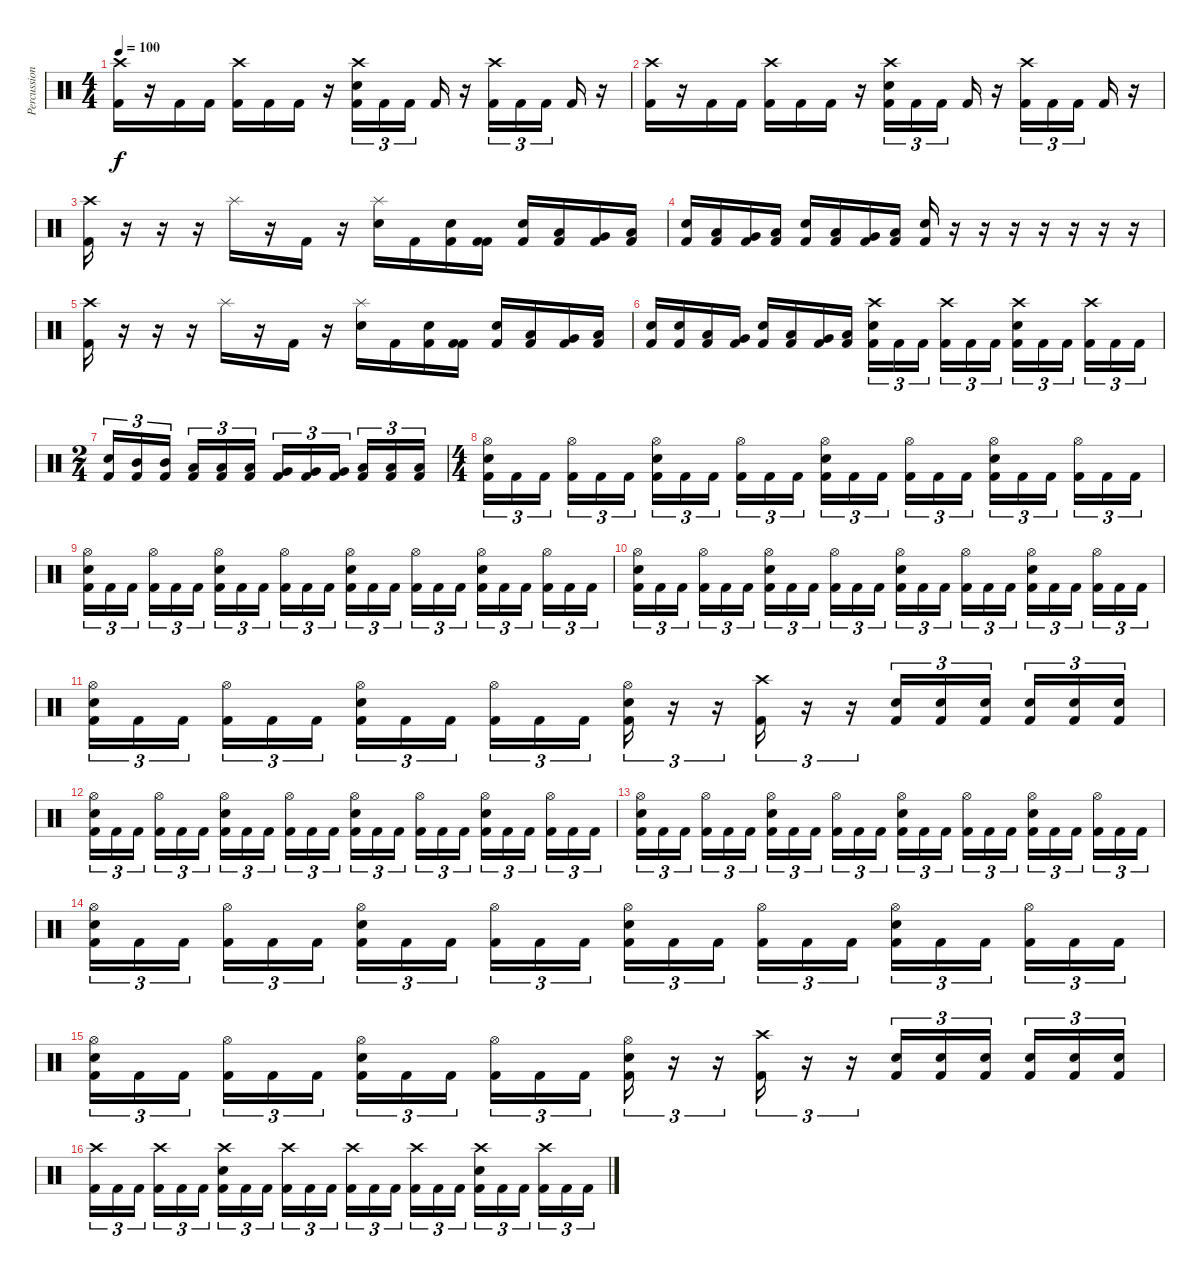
\track ("Percussion" "Percussion") {instrument percussion}
\staff {score}
\articulation defaults
\ts (4 4)
\tempo 100
\clef neutral
\ks c
("Crash high (hit)" "Kick (hit) 2").16{dy f} r.16 "Kick (hit) 2".16 "Kick (hit) 2".16 ("Crash high (hit)" "Kick (hit) 2").16 "Kick (hit) 2".16 "Kick (hit) 2".16 r.16 ("Crash high (hit)" "Electric Snare (hit)" "Kick (hit) 2").16{tu (3 2)} "Kick (hit) 2".16{tu (3 2)} "Kick (hit) 2".16{tu (3 2) beam splitsecondary} "Kick (hit) 2".16 r.16 ("Crash high (hit)" "Kick (hit) 2").16{tu (3 2)} "Kick (hit) 2".16{tu (3 2)} "Kick (hit) 2".16{tu (3 2) beam splitsecondary} "Kick (hit) 2".16 r.16 |
("Crash high (hit)" "Kick (hit) 2").16 r.16 "Kick (hit) 2".16 "Kick (hit) 2".16 ("Crash high (hit)" "Kick (hit) 2").16 "Kick (hit) 2".16 "Kick (hit) 2".16 r.16 ("Crash high (hit)" "Electric Snare (hit)" "Kick (hit) 2").16{tu (3 2)} "Kick (hit) 2".16{tu (3 2)} "Kick (hit) 2".16{tu (3 2) beam splitsecondary} "Kick (hit) 2".16 r.16 ("Crash high (hit)" "Kick (hit) 2").16{tu (3 2)} "Kick (hit) 2".16{tu (3 2)} "Kick (hit) 2".16{tu (3 2) beam splitsecondary} "Kick (hit) 2".16 r.16 |
("Crash high (hit)" "Kick (hit) 2").16 r.16 r.16 r.16 "Splash (hit)".16 r.16 "Kick (hit) 2".16 r.16 ("Splash (hit)" "Electric Snare (hit)").16 "Kick (hit) 2".16 ("Electric Snare (hit)" "Kick (hit) 2").16 ("Kick (hit) 2" "Kick (hit) 2").16 ("Electric Snare (hit)" "Kick (hit) 2").16 ("Low Tom (hit)" "Kick (hit) 2").16 ("Very Low Tom (hit)" "Kick (hit) 2").16 ("Low Floor Tom (hit)" "Kick (hit) 2").16 |
("Electric Snare (hit)" "Kick (hit) 2").16 ("Low Tom (hit)" "Kick (hit) 2").16 ("Very Low Tom (hit)" "Kick (hit) 2").16 ("Low Floor Tom (hit)" "Kick (hit) 2").16 ("Electric Snare (hit)" "Kick (hit) 2").16 ("Low Tom (hit)" "Kick (hit) 2").16 ("Very Low Tom (hit)" "Kick (hit) 2").16 ("Low Floor Tom (hit)" "Kick (hit) 2").16 ("Electric Snare (hit)" "Kick (hit) 2").16 r.16 r.16 r.16 r.16 r.16 r.16 r.16 |
("Crash high (hit)" "Kick (hit) 2").16 r.16 r.16 r.16 "Splash (hit)".16 r.16 "Kick (hit) 2".16 r.16 ("Splash (hit)" "Electric Snare (hit)").16 "Kick (hit) 2".16 ("Electric Snare (hit)" "Kick (hit) 2").16 ("Kick (hit) 2" "Kick (hit) 2").16 ("Electric Snare (hit)" "Kick (hit) 2").16 ("Low Tom (hit)" "Kick (hit) 2").16 ("Very Low Tom (hit)" "Kick (hit) 2").16 ("Low Floor Tom (hit)" "Kick (hit) 2").16 |
("Electric Snare (hit)" "Kick (hit) 2").16 ("Electric Snare (hit)" "Kick (hit) 2").16 ("Low Tom (hit)" "Kick (hit) 2").16 ("Very Low Tom (hit)" "Kick (hit) 2").16 ("Electric Snare (hit)" "Kick (hit) 2").16 ("Low Tom (hit)" "Kick (hit) 2").16 ("Very Low Tom (hit)" "Kick (hit) 2").16 ("Low Floor Tom (hit)" "Kick (hit) 2").16 ("Crash high (hit)" "Electric Snare (hit)" "Kick (hit) 2").16{tu (3 2)} "Kick (hit) 2".16{tu (3 2)} "Kick (hit) 2".16{tu (3 2) beam splitsecondary} ("Crash high (hit)" "Kick (hit) 2").16{tu (3 2)} "Kick (hit) 2".16{tu (3 2)} "Kick (hit) 2".16{tu (3 2)} ("Crash high (hit)" "Electric Snare (hit)" "Kick (hit) 2").16{tu (3 2)} "Kick (hit) 2".16{tu (3 2)} "Kick (hit) 2".16{tu (3 2) beam splitsecondary} ("Crash high (hit)" "Kick (hit) 2").16{tu (3 2)} "Kick (hit) 2".16{tu (3 2)} "Kick (hit) 2".16{tu (3 2)} |
\ts (2 4)
("Electric Snare (hit)" "Kick (hit) 2").16{tu (3 2)} ("Mid Tom (hit)" "Kick (hit) 2").16{tu (3 2)} ("Mid Tom (hit)" "Kick (hit) 2").16{tu (3 2) beam splitsecondary} ("Low Tom (hit)" "Kick (hit) 2").16{tu (3 2)} ("Low Tom (hit)" "Kick (hit) 2").16{tu (3 2)} ("Low Tom (hit)" "Kick (hit) 2").16{tu (3 2)} ("Very Low Tom (hit)" "Kick (hit) 2").16{tu (3 2)} ("Very Low Tom (hit)" "Kick (hit) 2").16{tu (3 2)} ("Very Low Tom (hit)" "Kick (hit) 2").16{tu (3 2) beam splitsecondary} ("Low Floor Tom (hit)" "Kick (hit) 2").16{tu (3 2)} ("Low Floor Tom (hit)" "Kick (hit) 2").16{tu (3 2)} ("Low Floor Tom (hit)" "Kick (hit) 2").16{tu (3 2)} |
\ts (4 4)
("Hi-Hat (open)" "Electric Snare (hit)" "Kick (hit) 2").16{tu (3 2)} "Kick (hit) 2".16{tu (3 2)} "Kick (hit) 2".16{tu (3 2) beam splitsecondary} ("Hi-Hat (open)" "Kick (hit) 2").16{tu (3 2)} "Kick (hit) 2".16{tu (3 2)} "Kick (hit) 2".16{tu (3 2)} ("Hi-Hat (open)" "Electric Snare (hit)" "Kick (hit) 2").16{tu (3 2)} "Kick (hit) 2".16{tu (3 2)} "Kick (hit) 2".16{tu (3 2) beam splitsecondary} ("Hi-Hat (open)" "Kick (hit) 2").16{tu (3 2)} "Kick (hit) 2".16{tu (3 2)} "Kick (hit) 2".16{tu (3 2)} ("Hi-Hat (open)" "Electric Snare (hit)" "Kick (hit) 2").16{tu (3 2)} "Kick (hit) 2".16{tu (3 2)} "Kick (hit) 2".16{tu (3 2) beam splitsecondary} ("Hi-Hat (open)" "Kick (hit) 2").16{tu (3 2)} "Kick (hit) 2".16{tu (3 2)} "Kick (hit) 2".16{tu (3 2)} ("Hi-Hat (open)" "Electric Snare (hit)" "Kick (hit) 2").16{tu (3 2)} "Kick (hit) 2".16{tu (3 2)} "Kick (hit) 2".16{tu (3 2) beam splitsecondary} ("Hi-Hat (open)" "Kick (hit) 2").16{tu (3 2)} "Kick (hit) 2".16{tu (3 2)} "Kick (hit) 2".16{tu (3 2)} |
("Hi-Hat (open)" "Electric Snare (hit)" "Kick (hit) 2").16{tu (3 2)} "Kick (hit) 2".16{tu (3 2)} "Kick (hit) 2".16{tu (3 2) beam splitsecondary} ("Hi-Hat (open)" "Kick (hit) 2").16{tu (3 2)} "Kick (hit) 2".16{tu (3 2)} "Kick (hit) 2".16{tu (3 2)} ("Hi-Hat (open)" "Electric Snare (hit)" "Kick (hit) 2").16{tu (3 2)} "Kick (hit) 2".16{tu (3 2)} "Kick (hit) 2".16{tu (3 2) beam splitsecondary} ("Hi-Hat (open)" "Kick (hit) 2").16{tu (3 2)} "Kick (hit) 2".16{tu (3 2)} "Kick (hit) 2".16{tu (3 2)} ("Hi-Hat (open)" "Electric Snare (hit)" "Kick (hit) 2").16{tu (3 2)} "Kick (hit) 2".16{tu (3 2)} "Kick (hit) 2".16{tu (3 2) beam splitsecondary} ("Hi-Hat (open)" "Kick (hit) 2").16{tu (3 2)} "Kick (hit) 2".16{tu (3 2)} "Kick (hit) 2".16{tu (3 2)} ("Hi-Hat (open)" "Electric Snare (hit)" "Kick (hit) 2").16{tu (3 2)} "Kick (hit) 2".16{tu (3 2)} "Kick (hit) 2".16{tu (3 2) beam splitsecondary} ("Hi-Hat (open)" "Kick (hit) 2").16{tu (3 2)} "Kick (hit) 2".16{tu (3 2)} "Kick (hit) 2".16{tu (3 2)} |
("Hi-Hat (open)" "Electric Snare (hit)" "Kick (hit) 2").16{tu (3 2)} "Kick (hit) 2".16{tu (3 2)} "Kick (hit) 2".16{tu (3 2) beam splitsecondary} ("Hi-Hat (open)" "Kick (hit) 2").16{tu (3 2)} "Kick (hit) 2".16{tu (3 2)} "Kick (hit) 2".16{tu (3 2)} ("Hi-Hat (open)" "Electric Snare (hit)" "Kick (hit) 2").16{tu (3 2)} "Kick (hit) 2".16{tu (3 2)} "Kick (hit) 2".16{tu (3 2) beam splitsecondary} ("Hi-Hat (open)" "Kick (hit) 2").16{tu (3 2)} "Kick (hit) 2".16{tu (3 2)} "Kick (hit) 2".16{tu (3 2)} ("Hi-Hat (open)" "Electric Snare (hit)" "Kick (hit) 2").16{tu (3 2)} "Kick (hit) 2".16{tu (3 2)} "Kick (hit) 2".16{tu (3 2) beam splitsecondary} ("Hi-Hat (open)" "Kick (hit) 2").16{tu (3 2)} "Kick (hit) 2".16{tu (3 2)} "Kick (hit) 2".16{tu (3 2)} ("Hi-Hat (open)" "Electric Snare (hit)" "Kick (hit) 2").16{tu (3 2)} "Kick (hit) 2".16{tu (3 2)} "Kick (hit) 2".16{tu (3 2) beam splitsecondary} ("Hi-Hat (open)" "Kick (hit) 2").16{tu (3 2)} "Kick (hit) 2".16{tu (3 2)} "Kick (hit) 2".16{tu (3 2)} |
("Hi-Hat (open)" "Electric Snare (hit)" "Kick (hit) 2").16{tu (3 2)} "Kick (hit) 2".16{tu (3 2)} "Kick (hit) 2".16{tu (3 2) beam splitsecondary} ("Hi-Hat (open)" "Kick (hit) 2").16{tu (3 2)} "Kick (hit) 2".16{tu (3 2)} "Kick (hit) 2".16{tu (3 2)} ("Hi-Hat (open)" "Electric Snare (hit)" "Kick (hit) 2").16{tu (3 2)} "Kick (hit) 2".16{tu (3 2)} "Kick (hit) 2".16{tu (3 2) beam splitsecondary} ("Hi-Hat (open)" "Kick (hit) 2").16{tu (3 2)} "Kick (hit) 2".16{tu (3 2)} "Kick (hit) 2".16{tu (3 2)} ("Hi-Hat (open)" "Electric Snare (hit)" "Kick (hit) 2").16{tu (3 2)} r.16{tu (3 2)} r.16{tu (3 2)} ("Crash high (hit)" "Kick (hit) 2").16{tu (3 2)} r.16{tu (3 2)} r.16{tu (3 2)} ("Electric Snare (hit)" "Kick (hit) 2").16{tu (3 2)} ("Electric Snare (hit)" "Kick (hit) 2").16{tu (3 2)} ("Electric Snare (hit)" "Kick (hit) 2").16{tu (3 2) beam splitsecondary} ("Electric Snare (hit)" "Kick (hit) 2").16{tu (3 2)} ("Electric Snare (hit)" "Kick (hit) 2").16{tu (3 2)} ("Electric Snare (hit)" "Kick (hit) 2").16{tu (3 2)} |
("Hi-Hat (open)" "Electric Snare (hit)" "Kick (hit) 2").16{tu (3 2)} "Kick (hit) 2".16{tu (3 2)} "Kick (hit) 2".16{tu (3 2) beam splitsecondary} ("Hi-Hat (open)" "Kick (hit) 2").16{tu (3 2)} "Kick (hit) 2".16{tu (3 2)} "Kick (hit) 2".16{tu (3 2)} ("Hi-Hat (open)" "Electric Snare (hit)" "Kick (hit) 2").16{tu (3 2)} "Kick (hit) 2".16{tu (3 2)} "Kick (hit) 2".16{tu (3 2) beam splitsecondary} ("Hi-Hat (open)" "Kick (hit) 2").16{tu (3 2)} "Kick (hit) 2".16{tu (3 2)} "Kick (hit) 2".16{tu (3 2)} ("Hi-Hat (open)" "Electric Snare (hit)" "Kick (hit) 2").16{tu (3 2)} "Kick (hit) 2".16{tu (3 2)} "Kick (hit) 2".16{tu (3 2) beam splitsecondary} ("Hi-Hat (open)" "Kick (hit) 2").16{tu (3 2)} "Kick (hit) 2".16{tu (3 2)} "Kick (hit) 2".16{tu (3 2)} ("Hi-Hat (open)" "Electric Snare (hit)" "Kick (hit) 2").16{tu (3 2)} "Kick (hit) 2".16{tu (3 2)} "Kick (hit) 2".16{tu (3 2) beam splitsecondary} ("Hi-Hat (open)" "Kick (hit) 2").16{tu (3 2)} "Kick (hit) 2".16{tu (3 2)} "Kick (hit) 2".16{tu (3 2)} |
("Hi-Hat (open)" "Electric Snare (hit)" "Kick (hit) 2").16{tu (3 2)} "Kick (hit) 2".16{tu (3 2)} "Kick (hit) 2".16{tu (3 2) beam splitsecondary} ("Hi-Hat (open)" "Kick (hit) 2").16{tu (3 2)} "Kick (hit) 2".16{tu (3 2)} "Kick (hit) 2".16{tu (3 2)} ("Hi-Hat (open)" "Electric Snare (hit)" "Kick (hit) 2").16{tu (3 2)} "Kick (hit) 2".16{tu (3 2)} "Kick (hit) 2".16{tu (3 2) beam splitsecondary} ("Hi-Hat (open)" "Kick (hit) 2").16{tu (3 2)} "Kick (hit) 2".16{tu (3 2)} "Kick (hit) 2".16{tu (3 2)} ("Hi-Hat (open)" "Electric Snare (hit)" "Kick (hit) 2").16{tu (3 2)} "Kick (hit) 2".16{tu (3 2)} "Kick (hit) 2".16{tu (3 2) beam splitsecondary} ("Hi-Hat (open)" "Kick (hit) 2").16{tu (3 2)} "Kick (hit) 2".16{tu (3 2)} "Kick (hit) 2".16{tu (3 2)} ("Hi-Hat (open)" "Electric Snare (hit)" "Kick (hit) 2").16{tu (3 2)} "Kick (hit) 2".16{tu (3 2)} "Kick (hit) 2".16{tu (3 2) beam splitsecondary} ("Hi-Hat (open)" "Kick (hit) 2").16{tu (3 2)} "Kick (hit) 2".16{tu (3 2)} "Kick (hit) 2".16{tu (3 2)} |
("Hi-Hat (open)" "Electric Snare (hit)" "Kick (hit) 2").16{tu (3 2)} "Kick (hit) 2".16{tu (3 2)} "Kick (hit) 2".16{tu (3 2) beam splitsecondary} ("Hi-Hat (open)" "Kick (hit) 2").16{tu (3 2)} "Kick (hit) 2".16{tu (3 2)} "Kick (hit) 2".16{tu (3 2)} ("Hi-Hat (open)" "Electric Snare (hit)" "Kick (hit) 2").16{tu (3 2)} "Kick (hit) 2".16{tu (3 2)} "Kick (hit) 2".16{tu (3 2) beam splitsecondary} ("Hi-Hat (open)" "Kick (hit) 2").16{tu (3 2)} "Kick (hit) 2".16{tu (3 2)} "Kick (hit) 2".16{tu (3 2)} ("Hi-Hat (open)" "Electric Snare (hit)" "Kick (hit) 2").16{tu (3 2)} "Kick (hit) 2".16{tu (3 2)} "Kick (hit) 2".16{tu (3 2) beam splitsecondary} ("Hi-Hat (open)" "Kick (hit) 2").16{tu (3 2)} "Kick (hit) 2".16{tu (3 2)} "Kick (hit) 2".16{tu (3 2)} ("Hi-Hat (open)" "Electric Snare (hit)" "Kick (hit) 2").16{tu (3 2)} "Kick (hit) 2".16{tu (3 2)} "Kick (hit) 2".16{tu (3 2) beam splitsecondary} ("Hi-Hat (open)" "Kick (hit) 2").16{tu (3 2)} "Kick (hit) 2".16{tu (3 2)} "Kick (hit) 2".16{tu (3 2)} |
("Hi-Hat (open)" "Electric Snare (hit)" "Kick (hit) 2").16{tu (3 2)} "Kick (hit) 2".16{tu (3 2)} "Kick (hit) 2".16{tu (3 2) beam splitsecondary} ("Hi-Hat (open)" "Kick (hit) 2").16{tu (3 2)} "Kick (hit) 2".16{tu (3 2)} "Kick (hit) 2".16{tu (3 2)} ("Hi-Hat (open)" "Electric Snare (hit)" "Kick (hit) 2").16{tu (3 2)} "Kick (hit) 2".16{tu (3 2)} "Kick (hit) 2".16{tu (3 2) beam splitsecondary} ("Hi-Hat (open)" "Kick (hit) 2").16{tu (3 2)} "Kick (hit) 2".16{tu (3 2)} "Kick (hit) 2".16{tu (3 2)} ("Hi-Hat (open)" "Electric Snare (hit)" "Kick (hit) 2").16{tu (3 2)} r.16{tu (3 2)} r.16{tu (3 2)} ("Crash high (hit)" "Kick (hit) 2").16{tu (3 2)} r.16{tu (3 2)} r.16{tu (3 2)} ("Electric Snare (hit)" "Kick (hit) 2").16{tu (3 2)} ("Electric Snare (hit)" "Kick (hit) 2").16{tu (3 2)} ("Electric Snare (hit)" "Kick (hit) 2").16{tu (3 2) beam splitsecondary} ("Electric Snare (hit)" "Kick (hit) 2").16{tu (3 2)} ("Electric Snare (hit)" "Kick (hit) 2").16{tu (3 2)} ("Electric Snare (hit)" "Kick (hit) 2").16{tu (3 2)} |
("Crash high (hit)" "Kick (hit) 2").16{tu (3 2)} "Kick (hit) 2".16{tu (3 2)} "Kick (hit) 2".16{tu (3 2) beam splitsecondary} ("Crash high (hit)" "Kick (hit) 2").16{tu (3 2)} "Kick (hit) 2".16{tu (3 2)} "Kick (hit) 2".16{tu (3 2)} ("Crash high (hit)" "Electric Snare (hit)" "Kick (hit) 2").16{tu (3 2)} "Kick (hit) 2".16{tu (3 2)} "Kick (hit) 2".16{tu (3 2) beam splitsecondary} ("Crash high (hit)" "Kick (hit) 2").16{tu (3 2)} "Kick (hit) 2".16{tu (3 2)} "Kick (hit) 2".16{tu (3 2)} ("Crash high (hit)" "Kick (hit) 2").16{tu (3 2)} "Kick (hit) 2".16{tu (3 2)} "Kick (hit) 2".16{tu (3 2) beam splitsecondary} ("Crash high (hit)" "Kick (hit) 2").16{tu (3 2)} "Kick (hit) 2".16{tu (3 2)} "Kick (hit) 2".16{tu (3 2)} ("Crash high (hit)" "Electric Snare (hit)" "Kick (hit) 2").16{tu (3 2)} "Kick (hit) 2".16{tu (3 2)} "Kick (hit) 2".16{tu (3 2) beam splitsecondary} ("Crash high (hit)" "Kick (hit) 2").16{tu (3 2)} "Kick (hit) 2".16{tu (3 2)} "Kick (hit) 2".16{tu (3 2)}
